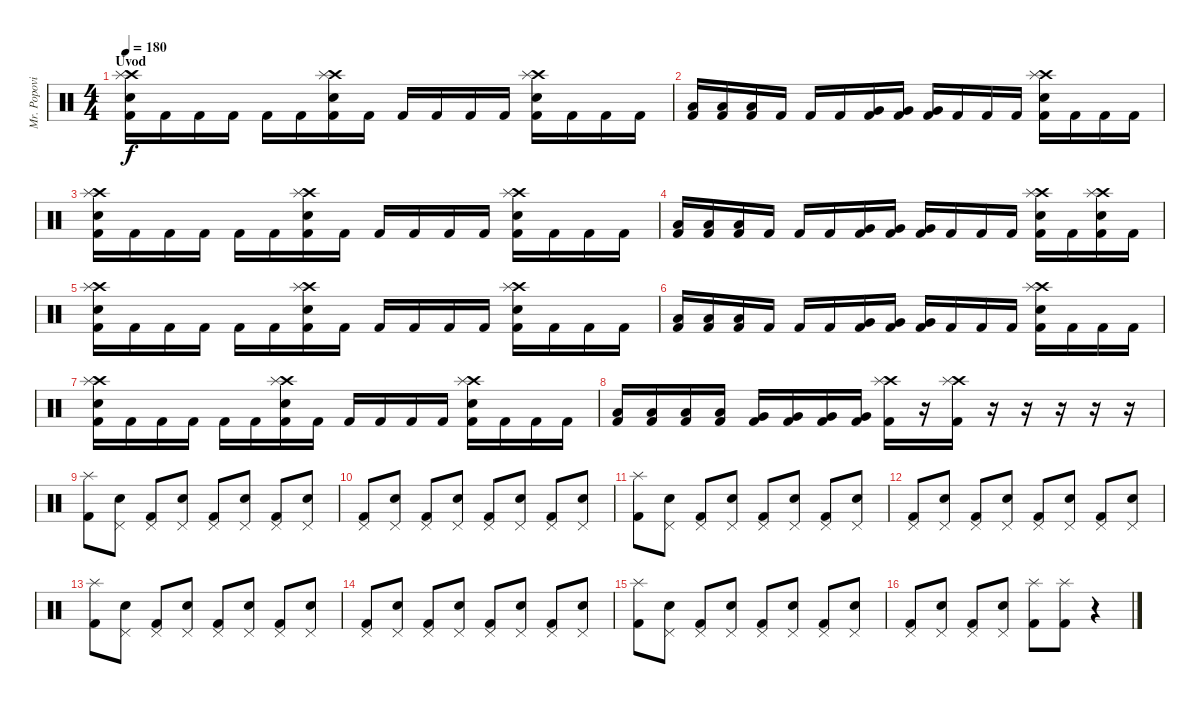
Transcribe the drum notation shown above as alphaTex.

\track ("Mr. Popovic" "Mr. Popovi") {instrument percussion}
\staff {score}
\articulation defaults
\ts (4 4)
\section ("" "Uvod")
\tempo 180
\clef neutral
\ks c
("Crash high (hit)" "Splash (hit)" "Electric Snare (hit)" "Kick (hit) 2").16{dy f} "Kick (hit) 2".16 "Kick (hit) 2".16 "Kick (hit) 2".16 "Kick (hit) 2".16 "Kick (hit) 2".16 ("Crash high (hit)" "Splash (hit)" "Electric Snare (hit)" "Kick (hit) 2").16 "Kick (hit) 2".16 "Kick (hit) 2".16 "Kick (hit) 2".16 "Kick (hit) 2".16 "Kick (hit) 2".16 ("Crash high (hit)" "Splash (hit)" "Electric Snare (hit)" "Kick (hit) 2").16 "Kick (hit) 2".16 "Kick (hit) 2".16 "Kick (hit) 2".16 |
("Low Tom (hit)" "Kick (hit) 2").16 ("Low Tom (hit)" "Kick (hit) 2").16 ("Low Tom (hit)" "Kick (hit) 2").16 "Kick (hit) 2".16 "Kick (hit) 2".16 "Kick (hit) 2".16 ("Very Low Tom (hit)" "Kick (hit) 2").16 ("Very Low Tom (hit)" "Kick (hit) 2").16 ("Very Low Tom (hit)" "Kick (hit) 2").16 "Kick (hit) 2".16 "Kick (hit) 2".16 "Kick (hit) 2".16 ("Crash high (hit)" "Splash (hit)" "Electric Snare (hit)" "Kick (hit) 2").16 "Kick (hit) 2".16 "Kick (hit) 2".16 "Kick (hit) 2".16 |
("Crash high (hit)" "Splash (hit)" "Electric Snare (hit)" "Kick (hit) 2").16 "Kick (hit) 2".16 "Kick (hit) 2".16 "Kick (hit) 2".16 "Kick (hit) 2".16 "Kick (hit) 2".16 ("Crash high (hit)" "Splash (hit)" "Electric Snare (hit)" "Kick (hit) 2").16 "Kick (hit) 2".16 "Kick (hit) 2".16 "Kick (hit) 2".16 "Kick (hit) 2".16 "Kick (hit) 2".16 ("Crash high (hit)" "Splash (hit)" "Electric Snare (hit)" "Kick (hit) 2").16 "Kick (hit) 2".16 "Kick (hit) 2".16 "Kick (hit) 2".16 |
("Low Tom (hit)" "Kick (hit) 2").16 ("Low Tom (hit)" "Kick (hit) 2").16 ("Low Tom (hit)" "Kick (hit) 2").16 "Kick (hit) 2".16 "Kick (hit) 2".16 "Kick (hit) 2".16 ("Very Low Tom (hit)" "Kick (hit) 2").16 ("Very Low Tom (hit)" "Kick (hit) 2").16 ("Very Low Tom (hit)" "Kick (hit) 2").16 "Kick (hit) 2".16 "Kick (hit) 2".16 "Kick (hit) 2".16 ("Crash high (hit)" "Splash (hit)" "Electric Snare (hit)" "Kick (hit) 2").16 "Kick (hit) 2".16 ("Crash high (hit)" "Splash (hit)" "Electric Snare (hit)" "Kick (hit) 2").16 "Kick (hit) 2".16 |
("Crash high (hit)" "Splash (hit)" "Electric Snare (hit)" "Kick (hit) 2").16 "Kick (hit) 2".16 "Kick (hit) 2".16 "Kick (hit) 2".16 "Kick (hit) 2".16 "Kick (hit) 2".16 ("Crash high (hit)" "Splash (hit)" "Electric Snare (hit)" "Kick (hit) 2").16 "Kick (hit) 2".16 "Kick (hit) 2".16 "Kick (hit) 2".16 "Kick (hit) 2".16 "Kick (hit) 2".16 ("Crash high (hit)" "Splash (hit)" "Electric Snare (hit)" "Kick (hit) 2").16 "Kick (hit) 2".16 "Kick (hit) 2".16 "Kick (hit) 2".16 |
("Low Tom (hit)" "Kick (hit) 2").16 ("Low Tom (hit)" "Kick (hit) 2").16 ("Low Tom (hit)" "Kick (hit) 2").16 "Kick (hit) 2".16 "Kick (hit) 2".16 "Kick (hit) 2".16 ("Very Low Tom (hit)" "Kick (hit) 2").16 ("Very Low Tom (hit)" "Kick (hit) 2").16 ("Very Low Tom (hit)" "Kick (hit) 2").16 "Kick (hit) 2".16 "Kick (hit) 2".16 "Kick (hit) 2".16 ("Crash high (hit)" "Splash (hit)" "Electric Snare (hit)" "Kick (hit) 2").16 "Kick (hit) 2".16 "Kick (hit) 2".16 "Kick (hit) 2".16 |
("Crash high (hit)" "Splash (hit)" "Electric Snare (hit)" "Kick (hit) 2").16 "Kick (hit) 2".16 "Kick (hit) 2".16 "Kick (hit) 2".16 "Kick (hit) 2".16 "Kick (hit) 2".16 ("Crash high (hit)" "Splash (hit)" "Electric Snare (hit)" "Kick (hit) 2").16 "Kick (hit) 2".16 "Kick (hit) 2".16 "Kick (hit) 2".16 "Kick (hit) 2".16 "Kick (hit) 2".16 ("Crash high (hit)" "Splash (hit)" "Electric Snare (hit)" "Kick (hit) 2").16 "Kick (hit) 2".16 "Kick (hit) 2".16 "Kick (hit) 2".16 |
("Low Tom (hit)" "Kick (hit) 2").16 ("Low Tom (hit)" "Kick (hit) 2").16 ("Low Tom (hit)" "Kick (hit) 2").16 ("Low Tom (hit)" "Kick (hit) 2").16 ("Very Low Tom (hit)" "Kick (hit) 2").16 ("Very Low Tom (hit)" "Kick (hit) 2").16 ("Very Low Tom (hit)" "Kick (hit) 2").16 ("Very Low Tom (hit)" "Kick (hit) 2").16 ("Crash high (hit)" "Splash (hit)" "Kick (hit) 2").16 r.16 ("Crash high (hit)" "Splash (hit)" "Kick (hit) 2").16 r.16 r.16 r.16 r.16 r.16 |
("Splash (hit)" "Kick (hit) 2").8 ("Pedal Hi-Hat (hit)" "Electric Snare (hit)").8 ("Pedal Hi-Hat (hit)" "Kick (hit) 2").8 ("Pedal Hi-Hat (hit)" "Electric Snare (hit)").8 ("Pedal Hi-Hat (hit)" "Kick (hit) 2").8 ("Pedal Hi-Hat (hit)" "Electric Snare (hit)").8 ("Pedal Hi-Hat (hit)" "Kick (hit) 2").8 ("Pedal Hi-Hat (hit)" "Electric Snare (hit)").8 |
("Pedal Hi-Hat (hit)" "Kick (hit) 2").8 ("Pedal Hi-Hat (hit)" "Electric Snare (hit)").8 ("Pedal Hi-Hat (hit)" "Kick (hit) 2").8 ("Pedal Hi-Hat (hit)" "Electric Snare (hit)").8 ("Pedal Hi-Hat (hit)" "Kick (hit) 2").8 ("Pedal Hi-Hat (hit)" "Electric Snare (hit)").8 ("Pedal Hi-Hat (hit)" "Kick (hit) 2").8 ("Pedal Hi-Hat (hit)" "Electric Snare (hit)").8 |
("Splash (hit)" "Kick (hit) 2").8 ("Pedal Hi-Hat (hit)" "Electric Snare (hit)").8 ("Pedal Hi-Hat (hit)" "Kick (hit) 2").8 ("Pedal Hi-Hat (hit)" "Electric Snare (hit)").8 ("Pedal Hi-Hat (hit)" "Kick (hit) 2").8 ("Pedal Hi-Hat (hit)" "Electric Snare (hit)").8 ("Pedal Hi-Hat (hit)" "Kick (hit) 2").8 ("Pedal Hi-Hat (hit)" "Electric Snare (hit)").8 |
("Pedal Hi-Hat (hit)" "Kick (hit) 2").8 ("Pedal Hi-Hat (hit)" "Electric Snare (hit)").8 ("Pedal Hi-Hat (hit)" "Kick (hit) 2").8 ("Pedal Hi-Hat (hit)" "Electric Snare (hit)").8 ("Pedal Hi-Hat (hit)" "Kick (hit) 2").8 ("Pedal Hi-Hat (hit)" "Electric Snare (hit)").8 ("Pedal Hi-Hat (hit)" "Kick (hit) 2").8 ("Pedal Hi-Hat (hit)" "Electric Snare (hit)").8 |
("Splash (hit)" "Kick (hit) 2").8 ("Pedal Hi-Hat (hit)" "Electric Snare (hit)").8 ("Pedal Hi-Hat (hit)" "Kick (hit) 2").8 ("Pedal Hi-Hat (hit)" "Electric Snare (hit)").8 ("Pedal Hi-Hat (hit)" "Kick (hit) 2").8 ("Pedal Hi-Hat (hit)" "Electric Snare (hit)").8 ("Pedal Hi-Hat (hit)" "Kick (hit) 2").8 ("Pedal Hi-Hat (hit)" "Electric Snare (hit)").8 |
("Pedal Hi-Hat (hit)" "Kick (hit) 2").8 ("Pedal Hi-Hat (hit)" "Electric Snare (hit)").8 ("Pedal Hi-Hat (hit)" "Kick (hit) 2").8 ("Pedal Hi-Hat (hit)" "Electric Snare (hit)").8 ("Pedal Hi-Hat (hit)" "Kick (hit) 2").8 ("Pedal Hi-Hat (hit)" "Electric Snare (hit)").8 ("Pedal Hi-Hat (hit)" "Kick (hit) 2").8 ("Pedal Hi-Hat (hit)" "Electric Snare (hit)").8 |
("Splash (hit)" "Kick (hit) 2").8 ("Pedal Hi-Hat (hit)" "Electric Snare (hit)").8 ("Pedal Hi-Hat (hit)" "Kick (hit) 2").8 ("Pedal Hi-Hat (hit)" "Electric Snare (hit)").8 ("Pedal Hi-Hat (hit)" "Kick (hit) 2").8 ("Pedal Hi-Hat (hit)" "Electric Snare (hit)").8 ("Pedal Hi-Hat (hit)" "Kick (hit) 2").8 ("Pedal Hi-Hat (hit)" "Electric Snare (hit)").8 |
("Pedal Hi-Hat (hit)" "Kick (hit) 2").8 ("Pedal Hi-Hat (hit)" "Electric Snare (hit)").8 ("Pedal Hi-Hat (hit)" "Kick (hit) 2").8 ("Pedal Hi-Hat (hit)" "Electric Snare (hit)").8 ("Splash (hit)" "Kick (hit) 2").8 ("Splash (hit)" "Kick (hit) 2").8 r.4
